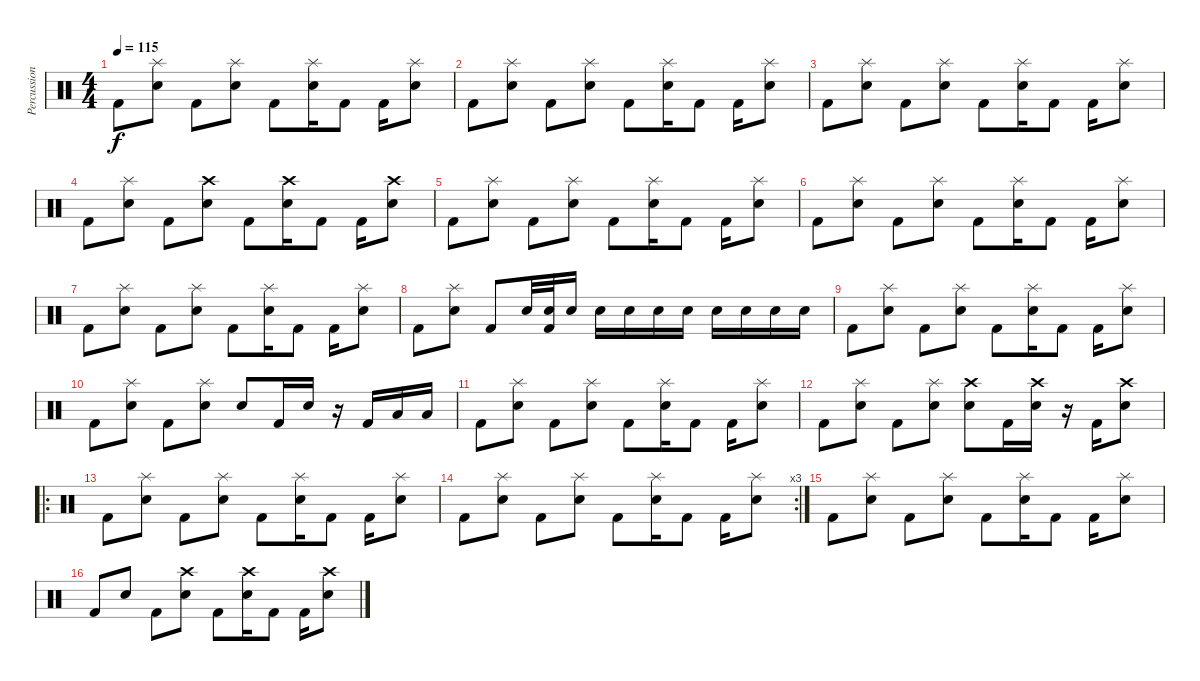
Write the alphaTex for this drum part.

\track ("Percussion" "Percussion") {instrument percussion}
\staff {score}
\articulation defaults
\ts (4 4)
\tempo 115
\clef neutral
\ks c "Kick (hit) 2".8{dy f}
("Splash (hit)" "Snare (hit) 2").8 "Kick (hit) 2".8 ("Splash (hit)" "Snare (hit) 2").8 "Kick (hit) 2".8 ("Splash (hit)" "Snare (hit) 2").16 "Kick (hit) 2".8 "Kick (hit) 2".16 ("Splash (hit)" "Snare (hit) 2").8 |
"Kick (hit) 2".8 ("Splash (hit)" "Snare (hit) 2").8 "Kick (hit) 2".8 ("Splash (hit)" "Snare (hit) 2").8 "Kick (hit) 2".8 ("Splash (hit)" "Snare (hit) 2").16 "Kick (hit) 2".8 "Kick (hit) 2".16 ("Splash (hit)" "Snare (hit) 2").8 |
"Kick (hit) 2".8 ("Splash (hit)" "Snare (hit) 2").8 "Kick (hit) 2".8 ("Splash (hit)" "Snare (hit) 2").8 "Kick (hit) 2".8 ("Splash (hit)" "Snare (hit) 2").16 "Kick (hit) 2".8 "Kick (hit) 2".16 ("Splash (hit)" "Snare (hit) 2").8 |
"Kick (hit) 2".8 ("Splash (hit)" "Snare (hit) 2").8 "Kick (hit) 2".8 ("Crash high (hit)" "Snare (hit) 2").8 "Kick (hit) 2".8 ("Crash high (hit)" "Snare (hit) 2").16 "Kick (hit) 2".8 "Kick (hit) 2".16 ("Crash high (hit)" "Snare (hit) 2").8 |
"Kick (hit) 2".8 ("Splash (hit)" "Snare (hit) 2").8 "Kick (hit) 2".8 ("Splash (hit)" "Snare (hit) 2").8 "Kick (hit) 2".8 ("Splash (hit)" "Snare (hit) 2").16 "Kick (hit) 2".8 "Kick (hit) 2".16 ("Splash (hit)" "Snare (hit) 2").8 |
"Kick (hit) 2".8 ("Splash (hit)" "Snare (hit) 2").8 "Kick (hit) 2".8 ("Splash (hit)" "Snare (hit) 2").8 "Kick (hit) 2".8 ("Splash (hit)" "Snare (hit) 2").16 "Kick (hit) 2".8 "Kick (hit) 2".16 ("Splash (hit)" "Snare (hit) 2").8 |
"Kick (hit) 2".8 ("Splash (hit)" "Snare (hit) 2").8 "Kick (hit) 2".8 ("Splash (hit)" "Snare (hit) 2").8 "Kick (hit) 2".8 ("Splash (hit)" "Snare (hit) 2").16 "Kick (hit) 2".8 "Kick (hit) 2".16 ("Splash (hit)" "Snare (hit) 2").8 |
"Kick (hit) 2".8 ("Splash (hit)" "Snare (hit) 2").8 "Kick (hit) 2".8 "Snare (hit) 2".32 ("Snare (hit) 2" "Kick (hit) 2").32 "Snare (hit) 2".16 "Snare (hit) 2".16 "Snare (hit) 2".16 "Snare (hit) 2".16 "Snare (hit) 2".16 "Snare (hit) 2".16 "Snare (hit) 2".16 "Snare (hit) 2".16 "Snare (hit) 2".16 |
"Kick (hit) 2".8 ("Splash (hit)" "Snare (hit) 2").8 "Kick (hit) 2".8 ("Splash (hit)" "Snare (hit) 2").8 "Kick (hit) 2".8 ("Splash (hit)" "Snare (hit) 2").16 "Kick (hit) 2".8 "Kick (hit) 2".16 ("Splash (hit)" "Snare (hit) 2").8 |
"Kick (hit) 2".8 ("Splash (hit)" "Snare (hit) 2").8 "Kick (hit) 2".8 ("Splash (hit)" "Snare (hit) 2").8 "Snare (hit) 2".8 "Kick (hit) 2".16 "Snare (hit) 2".16 r.16 "Kick (hit) 2".16 "Low Tom (hit)".16 "Low Floor Tom (hit)".16 |
"Kick (hit) 2".8 ("Splash (hit)" "Snare (hit) 2").8 "Kick (hit) 2".8 ("Splash (hit)" "Snare (hit) 2").8 "Kick (hit) 2".8 ("Splash (hit)" "Snare (hit) 2").16 "Kick (hit) 2".8 "Kick (hit) 2".16 ("Splash (hit)" "Snare (hit) 2").8 |
"Kick (hit) 2".8 ("Splash (hit)" "Snare (hit) 2").8 "Kick (hit) 2".8 ("Splash (hit)" "Snare (hit) 2").8 ("Crash high (hit)" "Snare (hit) 2").8 "Kick (hit) 2".16 ("Crash high (hit)" "Snare (hit) 2").16 r.16 "Kick (hit) 2".16 ("Crash high (hit)" "Snare (hit) 2").8 |
\ro "Kick (hit) 2".8
("Splash (hit)" "Snare (hit) 2").8 "Kick (hit) 2".8 ("Splash (hit)" "Snare (hit) 2").8 "Kick (hit) 2".8 ("Splash (hit)" "Snare (hit) 2").16 "Kick (hit) 2".8 "Kick (hit) 2".16 ("Splash (hit)" "Snare (hit) 2").8 |
\rc 3 "Kick (hit) 2".8
("Splash (hit)" "Snare (hit) 2").8 "Kick (hit) 2".8 ("Splash (hit)" "Snare (hit) 2").8 "Kick (hit) 2".8 ("Splash (hit)" "Snare (hit) 2").16 "Kick (hit) 2".8 "Kick (hit) 2".16 ("Splash (hit)" "Snare (hit) 2").8 |
"Kick (hit) 2".8 ("Splash (hit)" "Snare (hit) 2").8 "Kick (hit) 2".8 ("Splash (hit)" "Snare (hit) 2").8 "Kick (hit) 2".8 ("Splash (hit)" "Snare (hit) 2").16 "Kick (hit) 2".8 "Kick (hit) 2".16 ("Splash (hit)" "Snare (hit) 2").8 |
"Kick (hit) 2".8 "Snare (hit) 2".8 "Kick (hit) 2".8 ("Crash high (hit)" "Snare (hit) 2").8 "Kick (hit) 2".8 ("Crash high (hit)" "Snare (hit) 2").16 "Kick (hit) 2".8 "Kick (hit) 2".16 ("Crash high (hit)" "Snare (hit) 2").8
